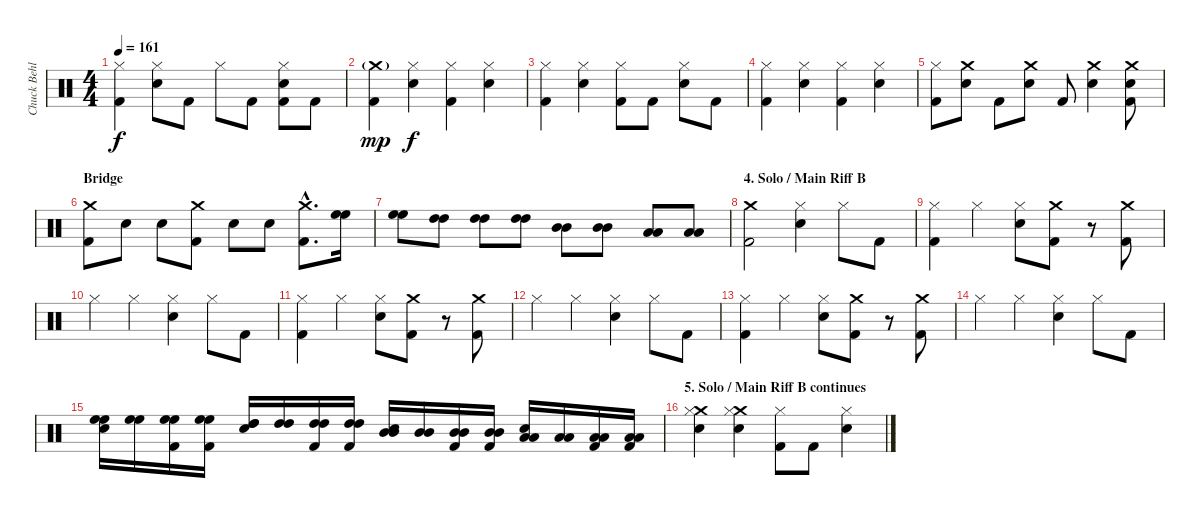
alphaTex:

\track ("Chuck Behler" "Chuck Behl") {instrument percussion}
\staff {score}
\articulation defaults
\ts (4 4)
\tempo 161
\clef neutral
\ks c
("Hi-Hat (closed)" "Kick (hit) 2").4{dy f} ("Hi-Hat (closed)" "Snare (hit) 2").8 "Kick (hit) 2".8 "Hi-Hat (closed)".8 "Kick (hit) 2".8 ("Hi-Hat (closed)" "Snare (hit) 2" "Kick (hit) 2").8 "Kick (hit) 2".8 |
("Crash medium (hit)"{g} "Kick (hit) 2").4{dy mp} ("Hi-Hat (closed)" "Snare (hit) 2").4{dy f} ("Hi-Hat (closed)" "Kick (hit) 2").4 ("Hi-Hat (closed)" "Snare (hit) 2").4 |
("Hi-Hat (closed)" "Kick (hit) 2").4 ("Hi-Hat (closed)" "Snare (hit) 2").4 ("Hi-Hat (closed)" "Kick (hit) 2").8 "Kick (hit) 2".8 ("Hi-Hat (closed)" "Snare (hit) 2").8 "Kick (hit) 2".8 |
("Hi-Hat (closed)" "Kick (hit) 2").4 ("Hi-Hat (closed)" "Snare (hit) 2").4 ("Hi-Hat (closed)" "Kick (hit) 2").4 ("Hi-Hat (closed)" "Snare (hit) 2").4 |
("Hi-Hat (closed)" "Kick (hit) 2").8 ("Crash medium (hit)" "Snare (hit) 2").8 "Kick (hit) 2".8 ("Crash medium (hit)" "Snare (hit) 2").8 "Kick (hit) 2".8 ("Crash medium (hit)" "Snare (hit) 2").4 ("Crash medium (hit)" "Snare (hit) 2" "Kick (hit) 2").8 |
\section ("" "Bridge")
("Crash medium (hit)" "Kick (hit) 2").8 "Snare (hit) 2".8 "Snare (hit) 2".8 ("Crash medium (hit)" "Kick (hit) 2").8 "Snare (hit) 2".8 "Snare (hit) 2".8 ("Crash medium (hit)"{hac} "Kick (hit) 2"{hac}).8{d} ("High Floor Tom (hit)" "High Floor Tom (hit)").16 |
("High Floor Tom (hit)" "High Floor Tom (hit)").8 ("High Tom (hit)" "High Tom (hit)").8 ("High Tom (hit)" "High Tom (hit)").8 ("High Tom (hit)" "High Tom (hit)").8 ("Mid Tom (hit)" "Mid Tom (hit)").8 ("Mid Tom (hit)" "Mid Tom (hit)").8 ("Low Tom (hit)" "Low Tom (hit)").8 ("Low Tom (hit)" "Low Tom (hit)").8 |
\section ("" "4. Solo / Main Riff B")
("Crash medium (hit)" "Kick (hit) 2").2 ("Hi-Hat (closed)" "Snare (hit) 2").4 "Hi-Hat (closed)".8 "Kick (hit) 2".8 |
("Hi-Hat (closed)" "Kick (hit) 2").4 "Hi-Hat (closed)".4 ("Hi-Hat (closed)" "Snare (hit) 2").8 ("Crash medium (hit)" "Kick (hit) 2").8 r.8 ("Crash medium (hit)" "Kick (hit) 2").8 |
"Hi-Hat (closed)".4 "Hi-Hat (closed)".4 ("Hi-Hat (closed)" "Snare (hit) 2").4 "Hi-Hat (closed)".8 "Kick (hit) 2".8 |
("Hi-Hat (closed)" "Kick (hit) 2").4 "Hi-Hat (closed)".4 ("Hi-Hat (closed)" "Snare (hit) 2").8 ("Crash medium (hit)" "Kick (hit) 2").8 r.8 ("Crash medium (hit)" "Kick (hit) 2").8 |
"Hi-Hat (closed)".4 "Hi-Hat (closed)".4 ("Hi-Hat (closed)" "Snare (hit) 2").4 "Hi-Hat (closed)".8 "Kick (hit) 2".8 |
("Hi-Hat (closed)" "Kick (hit) 2").4 "Hi-Hat (closed)".4 ("Hi-Hat (closed)" "Snare (hit) 2").8 ("Crash medium (hit)" "Kick (hit) 2").8 r.8 ("Crash medium (hit)" "Kick (hit) 2").8 |
"Hi-Hat (closed)".4 "Hi-Hat (closed)".4 ("Hi-Hat (closed)" "Snare (hit) 2").4 "Hi-Hat (closed)".8 "Kick (hit) 2".8 |
("High Floor Tom (hit)" "High Floor Tom (hit)" "Snare (hit) 2").16 ("High Floor Tom (hit)" "High Floor Tom (hit)").16 ("High Floor Tom (hit)" "High Floor Tom (hit)" "Kick (hit) 2").16 ("High Floor Tom (hit)" "High Floor Tom (hit)" "Kick (hit) 2").16 ("High Tom (hit)" "High Tom (hit)" "Snare (hit) 2").16 ("High Tom (hit)" "High Tom (hit)").16 ("High Tom (hit)" "High Tom (hit)" "Kick (hit) 2").16 ("High Tom (hit)" "High Tom (hit)" "Kick (hit) 2").16 ("Mid Tom (hit)" "Mid Tom (hit)" "Snare (hit) 2").16 ("Mid Tom (hit)" "Mid Tom (hit)").16 ("Mid Tom (hit)" "Mid Tom (hit)" "Kick (hit) 2").16 ("Mid Tom (hit)" "Mid Tom (hit)" "Kick (hit) 2").16 ("Low Tom (hit)" "Low Tom (hit)" "Snare (hit) 2").16 ("Low Tom (hit)" "Low Tom (hit)").16 ("Low Tom (hit)" "Low Tom (hit)" "Kick (hit) 2").16 ("Low Tom (hit)" "Low Tom (hit)" "Kick (hit) 2").16 |
\section ("" "5. Solo / Main Riff B continues")
("Crash medium (hit)" "Hi-Hat (closed)" "Snare (hit) 2").4 ("Crash medium (hit)" "Hi-Hat (closed)" "Snare (hit) 2").4 ("Hi-Hat (closed)" "Kick (hit) 2").8 "Kick (hit) 2".8 ("Hi-Hat (closed)" "Snare (hit) 2").4
